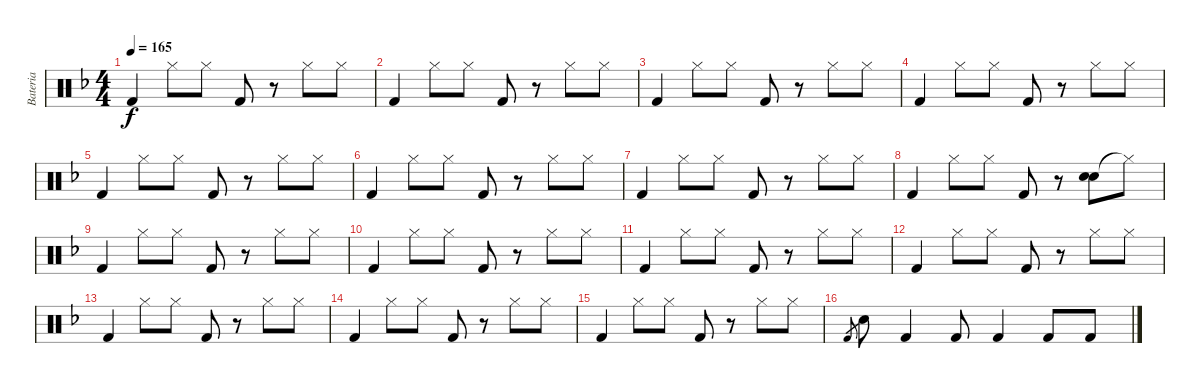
\track ("Bateria" "Bateria") {instrument percussion}
\staff {score}
\articulation defaults
\ts (4 4)
\tempo 165
\clef neutral
\ks dminor "Kick (hit) 2".4{dy f} "Hi-Hat (closed)".8 "Hi-Hat (closed)".8 "Kick (hit) 2".8
r.8 "Hi-Hat (closed)".8 "Hi-Hat (closed)".8 |
"Kick (hit) 2".4 "Hi-Hat (closed)".8 "Hi-Hat (closed)".8 "Kick (hit) 2".8 r.8 "Hi-Hat (closed)".8 "Hi-Hat (closed)".8 |
"Kick (hit) 2".4 "Hi-Hat (closed)".8 "Hi-Hat (closed)".8 "Kick (hit) 2".8 r.8 "Hi-Hat (closed)".8 "Hi-Hat (closed)".8 |
"Kick (hit) 2".4 "Hi-Hat (closed)".8 "Hi-Hat (closed)".8 "Kick (hit) 2".8 r.8 "Hi-Hat (closed)".8 "Hi-Hat (closed)".8 |
"Kick (hit) 2".4 "Hi-Hat (closed)".8 "Hi-Hat (closed)".8 "Kick (hit) 2".8 r.8 "Hi-Hat (closed)".8 "Hi-Hat (closed)".8 |
"Kick (hit) 2".4 "Hi-Hat (closed)".8 "Hi-Hat (closed)".8 "Kick (hit) 2".8 r.8 "Hi-Hat (closed)".8 "Hi-Hat (closed)".8 |
"Kick (hit) 2".4 "Hi-Hat (closed)".8 "Hi-Hat (closed)".8 "Kick (hit) 2".8 r.8 "Hi-Hat (closed)".8 "Hi-Hat (closed)".8 |
"Kick (hit) 2".4 "Hi-Hat (closed)".8 "Hi-Hat (closed)".8 "Kick (hit) 2".8 r.8 ("Snare (hit)" "Snare (hit) 2").8 "Hi-Hat (closed)"{t}.8 |
"Kick (hit) 2".4 "Hi-Hat (closed)".8 "Hi-Hat (closed)".8 "Kick (hit) 2".8 r.8 "Hi-Hat (closed)".8 "Hi-Hat (closed)".8 |
"Kick (hit) 2".4 "Hi-Hat (closed)".8 "Hi-Hat (closed)".8 "Kick (hit) 2".8 r.8 "Hi-Hat (closed)".8 "Hi-Hat (closed)".8 |
"Kick (hit) 2".4 "Hi-Hat (closed)".8 "Hi-Hat (closed)".8 "Kick (hit) 2".8 r.8 "Hi-Hat (closed)".8 "Hi-Hat (closed)".8 |
"Kick (hit) 2".4 "Hi-Hat (closed)".8 "Hi-Hat (closed)".8 "Kick (hit) 2".8 r.8 "Hi-Hat (closed)".8 "Hi-Hat (closed)".8 |
"Kick (hit) 2".4 "Hi-Hat (closed)".8 "Hi-Hat (closed)".8 "Kick (hit) 2".8 r.8 "Hi-Hat (closed)".8 "Hi-Hat (closed)".8 |
"Kick (hit) 2".4 "Hi-Hat (closed)".8 "Hi-Hat (closed)".8 "Kick (hit) 2".8 r.8 "Hi-Hat (closed)".8 "Hi-Hat (closed)".8 |
"Kick (hit) 2".4 "Hi-Hat (closed)".8 "Hi-Hat (closed)".8 "Kick (hit) 2".8 r.8 "Hi-Hat (closed)".8 "Hi-Hat (closed)".8 |
"Kick (hit) 2".8{gr} "Snare (hit) 2".8 "Kick (hit) 2".4 "Kick (hit) 2".8 "Kick (hit) 2".4 "Kick (hit) 2".8 "Kick (hit) 2".8
